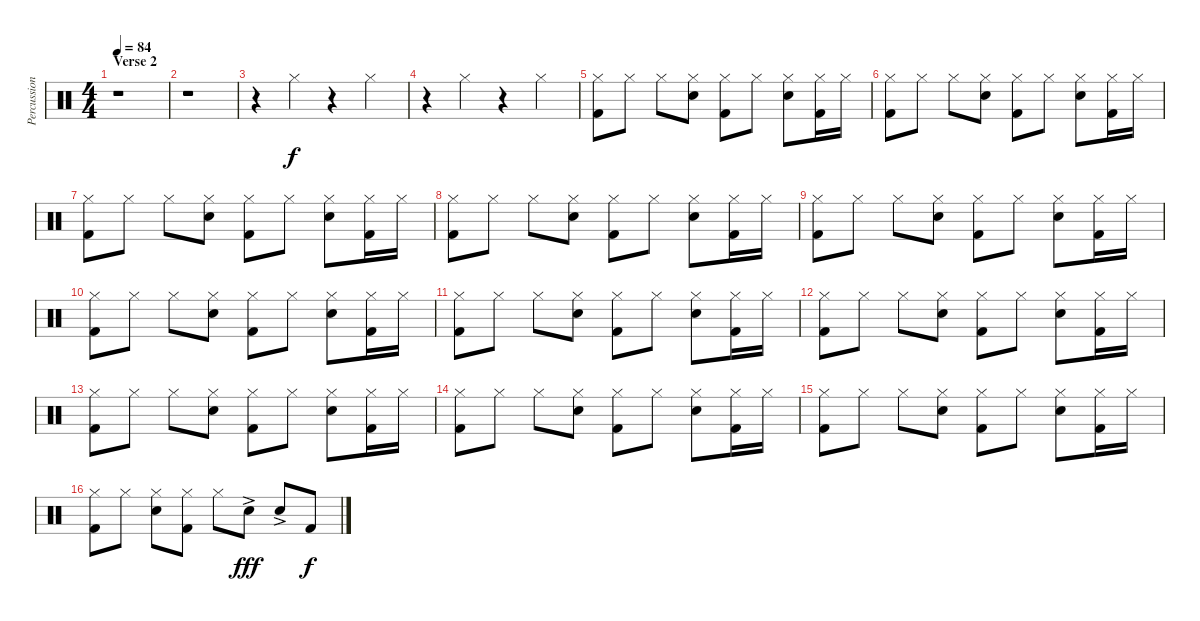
\track ("Percussion" "Percussion") {instrument percussion}
\staff {score}
\articulation defaults
\ts (4 4)
\section ("" "Verse 2")
\tempo 84
\clef neutral
\ks c
r.1{dy f} |
r.1 |
r.4 "Hi-Hat (closed)".4 r.4 "Hi-Hat (closed)".4 |
r.4 "Hi-Hat (closed)".4 r.4 "Hi-Hat (closed)".4 |
("Hi-Hat (closed)" "Kick (hit) 2").8 "Hi-Hat (closed)".8 "Hi-Hat (closed)".8 ("Hi-Hat (closed)" "Snare (hit) 2").8 ("Hi-Hat (closed)" "Kick (hit) 2").8 "Hi-Hat (closed)".8 ("Hi-Hat (closed)" "Snare (hit) 2").8 ("Hi-Hat (closed)" "Kick (hit) 2").16 "Hi-Hat (closed)".16 |
("Hi-Hat (closed)" "Kick (hit) 2").8 "Hi-Hat (closed)".8 "Hi-Hat (closed)".8 ("Hi-Hat (closed)" "Snare (hit) 2").8 ("Hi-Hat (closed)" "Kick (hit) 2").8 "Hi-Hat (closed)".8 ("Hi-Hat (closed)" "Snare (hit) 2").8 ("Hi-Hat (closed)" "Kick (hit) 2").16 "Hi-Hat (closed)".16 |
("Hi-Hat (closed)" "Kick (hit) 2").8 "Hi-Hat (closed)".8 "Hi-Hat (closed)".8 ("Hi-Hat (closed)" "Snare (hit) 2").8 ("Hi-Hat (closed)" "Kick (hit) 2").8 "Hi-Hat (closed)".8 ("Hi-Hat (closed)" "Snare (hit) 2").8 ("Hi-Hat (closed)" "Kick (hit) 2").16 "Hi-Hat (closed)".16 |
("Hi-Hat (closed)" "Kick (hit) 2").8 "Hi-Hat (closed)".8 "Hi-Hat (closed)".8 ("Hi-Hat (closed)" "Snare (hit) 2").8 ("Hi-Hat (closed)" "Kick (hit) 2").8 "Hi-Hat (closed)".8 ("Hi-Hat (closed)" "Snare (hit) 2").8 ("Hi-Hat (closed)" "Kick (hit) 2").16 "Hi-Hat (closed)".16 |
("Hi-Hat (closed)" "Kick (hit) 2").8 "Hi-Hat (closed)".8 "Hi-Hat (closed)".8 ("Hi-Hat (closed)" "Snare (hit) 2").8 ("Hi-Hat (closed)" "Kick (hit) 2").8 "Hi-Hat (closed)".8 ("Hi-Hat (closed)" "Snare (hit) 2").8 ("Hi-Hat (closed)" "Kick (hit) 2").16 "Hi-Hat (closed)".16 |
("Hi-Hat (closed)" "Kick (hit) 2").8 "Hi-Hat (closed)".8 "Hi-Hat (closed)".8 ("Hi-Hat (closed)" "Snare (hit) 2").8 ("Hi-Hat (closed)" "Kick (hit) 2").8 "Hi-Hat (closed)".8 ("Hi-Hat (closed)" "Snare (hit) 2").8 ("Hi-Hat (closed)" "Kick (hit) 2").16 "Hi-Hat (closed)".16 |
("Hi-Hat (closed)" "Kick (hit) 2").8 "Hi-Hat (closed)".8 "Hi-Hat (closed)".8 ("Hi-Hat (closed)" "Snare (hit) 2").8 ("Hi-Hat (closed)" "Kick (hit) 2").8 "Hi-Hat (closed)".8 ("Hi-Hat (closed)" "Snare (hit) 2").8 ("Hi-Hat (closed)" "Kick (hit) 2").16 "Hi-Hat (closed)".16 |
("Hi-Hat (closed)" "Kick (hit) 2").8 "Hi-Hat (closed)".8 "Hi-Hat (closed)".8 ("Hi-Hat (closed)" "Snare (hit) 2").8 ("Hi-Hat (closed)" "Kick (hit) 2").8 "Hi-Hat (closed)".8 ("Hi-Hat (closed)" "Snare (hit) 2").8 ("Hi-Hat (closed)" "Kick (hit) 2").16 "Hi-Hat (closed)".16 |
("Hi-Hat (closed)" "Kick (hit) 2").8 "Hi-Hat (closed)".8 "Hi-Hat (closed)".8 ("Hi-Hat (closed)" "Snare (hit) 2").8 ("Hi-Hat (closed)" "Kick (hit) 2").8 "Hi-Hat (closed)".8 ("Hi-Hat (closed)" "Snare (hit) 2").8 ("Hi-Hat (closed)" "Kick (hit) 2").16 "Hi-Hat (closed)".16 |
("Hi-Hat (closed)" "Kick (hit) 2").8 "Hi-Hat (closed)".8 "Hi-Hat (closed)".8 ("Hi-Hat (closed)" "Snare (hit) 2").8 ("Hi-Hat (closed)" "Kick (hit) 2").8 "Hi-Hat (closed)".8 ("Hi-Hat (closed)" "Snare (hit) 2").8 ("Hi-Hat (closed)" "Kick (hit) 2").16 "Hi-Hat (closed)".16 |
("Hi-Hat (closed)" "Kick (hit) 2").8 "Hi-Hat (closed)".8 "Hi-Hat (closed)".8 ("Hi-Hat (closed)" "Snare (hit) 2").8 ("Hi-Hat (closed)" "Kick (hit) 2").8 "Hi-Hat (closed)".8 ("Hi-Hat (closed)" "Snare (hit) 2").8 ("Hi-Hat (closed)" "Kick (hit) 2").16 "Hi-Hat (closed)".16 |
("Hi-Hat (closed)" "Kick (hit) 2").8 "Hi-Hat (closed)".8 ("Hi-Hat (closed)" "Snare (hit) 2").8 ("Hi-Hat (closed)" "Kick (hit) 2").8 "Hi-Hat (closed)".8 "Snare (hit) 2"{ac}.8{dy fff} "Snare (hit) 2"{ac}.8 "Kick (hit) 2".8{dy f}
